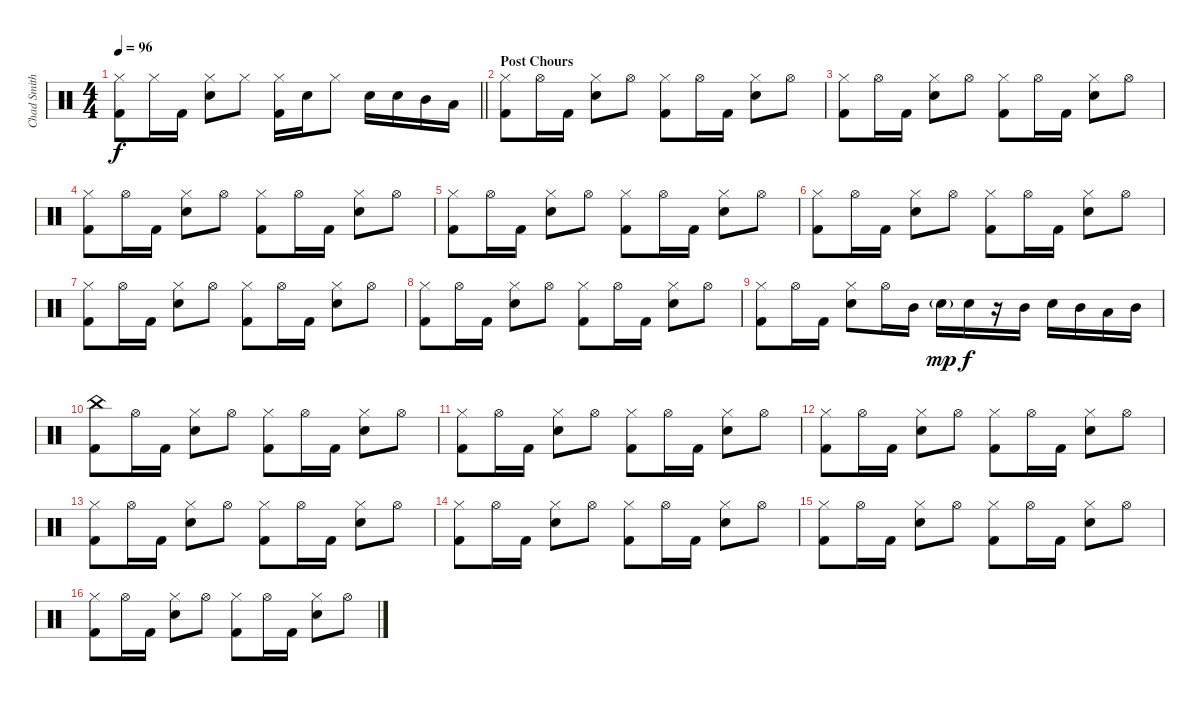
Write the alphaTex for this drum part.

\track ("Chad Smith (Drums)" "Chad Smith") {instrument percussion}
\staff {score}
\articulation defaults
\ts (4 4)
\tempo 96
\clef neutral
\barLineRight lightlight
\ks c
("Hi-Hat (closed)" "Kick (hit) 2").8{dy f} "Hi-Hat (closed)".16 "Kick (hit) 2".16 ("Hi-Hat (closed)" "Electric Snare (hit)").8 "Hi-Hat (closed)".8 ("Hi-Hat (closed)" "Kick (hit) 2").16 "Electric Snare (hit)".16 "Hi-Hat (closed)".8 "Electric Snare (hit)".16 "Electric Snare (hit)".16 "Mid Tom (hit)".16 "Low Tom (hit)".16 |
\section ("" "Post Chours")
("Hi-Hat (closed)" "Kick (hit) 2").8 "Hi-Hat (open)".16 "Kick (hit) 2".16 ("Hi-Hat (closed)" "Electric Snare (hit)").8 "Hi-Hat (open)".8 ("Hi-Hat (closed)" "Kick (hit) 2").8 "Hi-Hat (open)".16 "Kick (hit) 2".16 ("Hi-Hat (closed)" "Electric Snare (hit)").8 "Hi-Hat (open)".8 |
("Hi-Hat (closed)" "Kick (hit) 2").8 "Hi-Hat (open)".16 "Kick (hit) 2".16 ("Hi-Hat (closed)" "Electric Snare (hit)").8 "Hi-Hat (open)".8 ("Hi-Hat (closed)" "Kick (hit) 2").8 "Hi-Hat (open)".16 "Kick (hit) 2".16 ("Hi-Hat (closed)" "Electric Snare (hit)").8 "Hi-Hat (open)".8 |
("Hi-Hat (closed)" "Kick (hit) 2").8 "Hi-Hat (open)".16 "Kick (hit) 2".16 ("Hi-Hat (closed)" "Electric Snare (hit)").8 "Hi-Hat (open)".8 ("Hi-Hat (closed)" "Kick (hit) 2").8 "Hi-Hat (open)".16 "Kick (hit) 2".16 ("Hi-Hat (closed)" "Electric Snare (hit)").8 "Hi-Hat (open)".8 |
("Hi-Hat (closed)" "Kick (hit) 2").8 "Hi-Hat (open)".16 "Kick (hit) 2".16 ("Hi-Hat (closed)" "Electric Snare (hit)").8 "Hi-Hat (open)".8 ("Hi-Hat (closed)" "Kick (hit) 2").8 "Hi-Hat (open)".16 "Kick (hit) 2".16 ("Hi-Hat (closed)" "Electric Snare (hit)").8 "Hi-Hat (open)".8 |
("Hi-Hat (closed)" "Kick (hit) 2").8 "Hi-Hat (open)".16 "Kick (hit) 2".16 ("Hi-Hat (closed)" "Electric Snare (hit)").8 "Hi-Hat (open)".8 ("Hi-Hat (closed)" "Kick (hit) 2").8 "Hi-Hat (open)".16 "Kick (hit) 2".16 ("Hi-Hat (closed)" "Electric Snare (hit)").8 "Hi-Hat (open)".8 |
("Hi-Hat (closed)" "Kick (hit) 2").8 "Hi-Hat (open)".16 "Kick (hit) 2".16 ("Hi-Hat (closed)" "Electric Snare (hit)").8 "Hi-Hat (open)".8 ("Hi-Hat (closed)" "Kick (hit) 2").8 "Hi-Hat (open)".16 "Kick (hit) 2".16 ("Hi-Hat (closed)" "Electric Snare (hit)").8 "Hi-Hat (open)".8 |
("Hi-Hat (closed)" "Kick (hit) 2").8 "Hi-Hat (open)".16 "Kick (hit) 2".16 ("Hi-Hat (closed)" "Electric Snare (hit)").8 "Hi-Hat (open)".8 ("Hi-Hat (closed)" "Kick (hit) 2").8 "Hi-Hat (open)".16 "Kick (hit) 2".16 ("Hi-Hat (closed)" "Electric Snare (hit)").8 "Hi-Hat (open)".8 |
("Hi-Hat (closed)" "Kick (hit) 2").8 "Hi-Hat (open)".16 "Kick (hit) 2".16 ("Hi-Hat (closed)" "Electric Snare (hit)").8 "Hi-Hat (open)".16 "Mid Tom (hit)".16 "Electric Snare (hit)"{g}.16{dy mp} "Electric Snare (hit)".16{dy f} r.16 "Mid Tom (hit)".16 "Electric Snare (hit)".16 "Mid Tom (hit)".16 "Low Tom (hit)".16 "Mid Tom (hit)".16 |
("China (hit)" "Kick (hit) 2").8 "Hi-Hat (open)".16 "Kick (hit) 2".16 ("Hi-Hat (closed)" "Electric Snare (hit)").8 "Hi-Hat (open)".8 ("Hi-Hat (closed)" "Kick (hit) 2").8 "Hi-Hat (open)".16 "Kick (hit) 2".16 ("Hi-Hat (closed)" "Electric Snare (hit)").8 "Hi-Hat (open)".8 |
("Hi-Hat (closed)" "Kick (hit) 2").8 "Hi-Hat (open)".16 "Kick (hit) 2".16 ("Hi-Hat (closed)" "Electric Snare (hit)").8 "Hi-Hat (open)".8 ("Hi-Hat (closed)" "Kick (hit) 2").8 "Hi-Hat (open)".16 "Kick (hit) 2".16 ("Hi-Hat (closed)" "Electric Snare (hit)").8 "Hi-Hat (open)".8 |
("Hi-Hat (closed)" "Kick (hit) 2").8 "Hi-Hat (open)".16 "Kick (hit) 2".16 ("Hi-Hat (closed)" "Electric Snare (hit)").8 "Hi-Hat (open)".8 ("Hi-Hat (closed)" "Kick (hit) 2").8 "Hi-Hat (open)".16 "Kick (hit) 2".16 ("Hi-Hat (closed)" "Electric Snare (hit)").8 "Hi-Hat (open)".8 |
("Hi-Hat (closed)" "Kick (hit) 2").8 "Hi-Hat (open)".16 "Kick (hit) 2".16 ("Hi-Hat (closed)" "Electric Snare (hit)").8 "Hi-Hat (open)".8 ("Hi-Hat (closed)" "Kick (hit) 2").8 "Hi-Hat (open)".16 "Kick (hit) 2".16 ("Hi-Hat (closed)" "Electric Snare (hit)").8 "Hi-Hat (open)".8 |
("Hi-Hat (closed)" "Kick (hit) 2").8 "Hi-Hat (open)".16 "Kick (hit) 2".16 ("Hi-Hat (closed)" "Electric Snare (hit)").8 "Hi-Hat (open)".8 ("Hi-Hat (closed)" "Kick (hit) 2").8 "Hi-Hat (open)".16 "Kick (hit) 2".16 ("Hi-Hat (closed)" "Electric Snare (hit)").8 "Hi-Hat (open)".8 |
("Hi-Hat (closed)" "Kick (hit) 2").8 "Hi-Hat (open)".16 "Kick (hit) 2".16 ("Hi-Hat (closed)" "Electric Snare (hit)").8 "Hi-Hat (open)".8 ("Hi-Hat (closed)" "Kick (hit) 2").8 "Hi-Hat (open)".16 "Kick (hit) 2".16 ("Hi-Hat (closed)" "Electric Snare (hit)").8 "Hi-Hat (open)".8 |
("Hi-Hat (closed)" "Kick (hit) 2").8 "Hi-Hat (open)".16 "Kick (hit) 2".16 ("Hi-Hat (closed)" "Electric Snare (hit)").8 "Hi-Hat (open)".8 ("Hi-Hat (closed)" "Kick (hit) 2").8 "Hi-Hat (open)".16 "Kick (hit) 2".16 ("Hi-Hat (closed)" "Electric Snare (hit)").8 "Hi-Hat (open)".8
